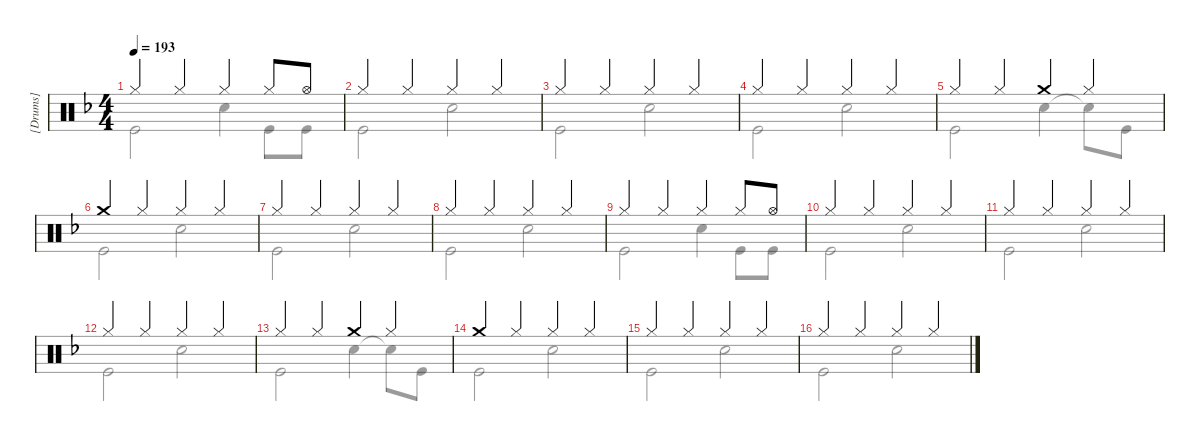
\hideDynamics
\bracketExtendMode groupsimilarinstruments
\firstSystemTrackNameMode fullname
\otherSystemsTrackNameMode fullname
\otherSystemsTrackNameOrientation horizontal
\track ("[Drums]" "Drums") {instrument percussion}
\staff {score}
\articulation defaults
\voice
\ts (4 4)
\tempo 193
\clef neutral
\ks f "Hi-Hat (closed)".4{dy ff} "Hi-Hat (closed)".4 "Hi-Hat (closed)".4 "Hi-Hat (closed)".8 "Hi-Hat (open)".8
|
"Hi-Hat (closed)".4 "Hi-Hat (closed)".4 "Hi-Hat (closed)".4 "Hi-Hat (closed)".4 |
"Hi-Hat (closed)".4 "Hi-Hat (closed)".4 "Hi-Hat (closed)".4 "Hi-Hat (closed)".4 |
"Hi-Hat (closed)".4 "Hi-Hat (closed)".4 "Hi-Hat (closed)".4 "Hi-Hat (closed)".4 |
"Hi-Hat (closed)".4 "Hi-Hat (closed)".4 "Crash medium (hit)".4 "Hi-Hat (closed)".4 |
"Crash medium (hit)".4 "Hi-Hat (closed)".4 "Hi-Hat (closed)".4 "Hi-Hat (closed)".4 |
"Hi-Hat (closed)".4 "Hi-Hat (closed)".4 "Hi-Hat (closed)".4 "Hi-Hat (closed)".4 |
"Hi-Hat (closed)".4 "Hi-Hat (closed)".4 "Hi-Hat (closed)".4 "Hi-Hat (closed)".4 |
"Hi-Hat (closed)".4 "Hi-Hat (closed)".4 "Hi-Hat (closed)".4 "Hi-Hat (closed)".8 "Hi-Hat (open)".8 |
"Hi-Hat (closed)".4 "Hi-Hat (closed)".4 "Hi-Hat (closed)".4 "Hi-Hat (closed)".4 |
"Hi-Hat (closed)".4 "Hi-Hat (closed)".4 "Hi-Hat (closed)".4 "Hi-Hat (closed)".4 |
"Hi-Hat (closed)".4 "Hi-Hat (closed)".4 "Hi-Hat (closed)".4 "Hi-Hat (closed)".4 |
"Hi-Hat (closed)".4 "Hi-Hat (closed)".4 "Crash medium (hit)".4 "Hi-Hat (closed)".4 |
"Crash medium (hit)".4 "Hi-Hat (closed)".4 "Hi-Hat (closed)".4 "Hi-Hat (closed)".4 |
"Hi-Hat (closed)".4 "Hi-Hat (closed)".4 "Hi-Hat (closed)".4 "Hi-Hat (closed)".4 |
"Hi-Hat (closed)".4 "Hi-Hat (closed)".4 "Hi-Hat (closed)".4 "Hi-Hat (closed)".4
\voice
\clef neutral
\ottava regular
\simile none
\ks f "Kick (hit)".2{dy f} "Snare (hit) 2".4 "Kick (hit)".8 "Kick (hit)".8
|
"Kick (hit)".2 "Snare (hit) 2".2 |
"Kick (hit)".2 "Snare (hit) 2".2 |
"Kick (hit)".2 "Snare (hit) 2".2 |
"Kick (hit)".2 "Snare (hit) 2".4 "Snare (hit) 2"{t}.8 "Kick (hit)".8 |
"Kick (hit)".2 "Snare (hit) 2".2 |
"Kick (hit)".2 "Snare (hit) 2".2 |
"Kick (hit)".2 "Snare (hit) 2".2 |
"Kick (hit)".2 "Snare (hit) 2".4 "Kick (hit)".8 "Kick (hit)".8 |
"Kick (hit)".2 "Snare (hit) 2".2 |
"Kick (hit)".2 "Snare (hit) 2".2 |
"Kick (hit)".2 "Snare (hit) 2".2 |
"Kick (hit)".2 "Snare (hit) 2".4 "Snare (hit) 2"{t}.8 "Kick (hit)".8 |
"Kick (hit)".2 "Snare (hit) 2".2 |
"Kick (hit)".2 "Snare (hit) 2".2 |
"Kick (hit)".2 "Snare (hit) 2".2
